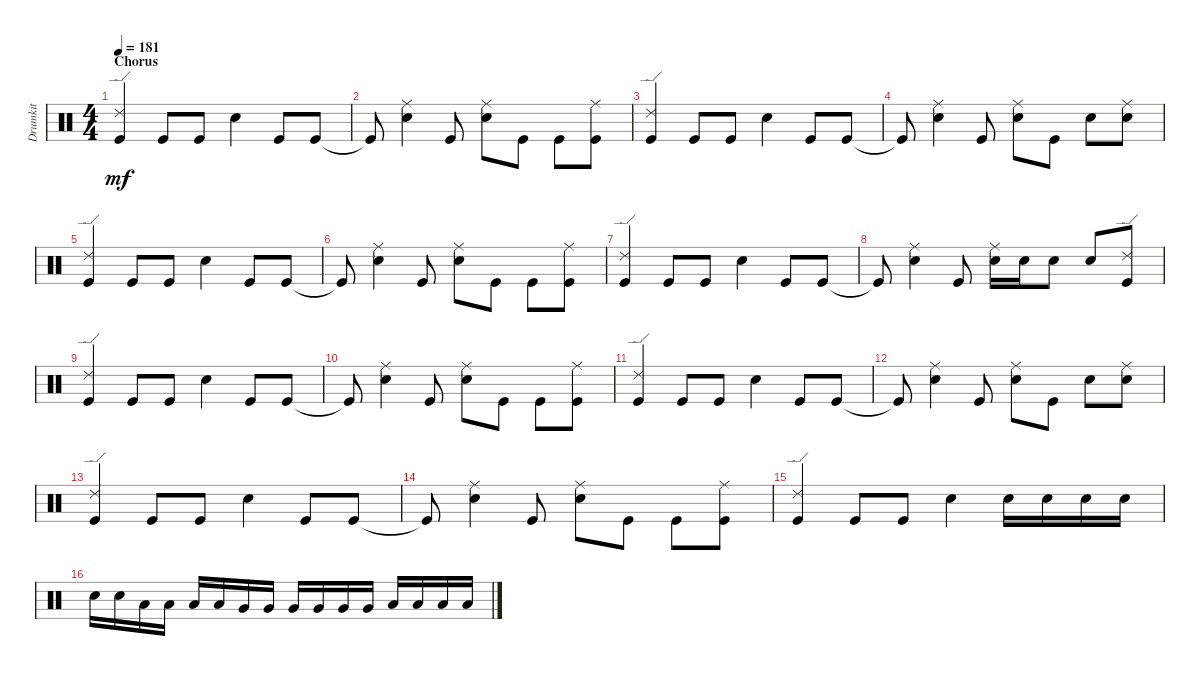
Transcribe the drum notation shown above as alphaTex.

\track ("Drumkit" "Drumkit") {instrument percussion}
\staff {score}
\articulation defaults
\ts (4 4)
\section ("" "Chorus")
\tempo 181
\clef neutral
\ks c
("Kick (hit)" "Ride (edge) 2").4{dy mf} "Kick (hit)".8 "Kick (hit)".8 "Snare (hit) 2".4 "Kick (hit)".8 "Kick (hit)".8 |
"Kick (hit)"{t}.8 ("Snare (hit) 2" "Ride (middle)").4 "Kick (hit)".8 ("Snare (hit) 2" "Ride (middle)").8 "Kick (hit)".8 "Kick (hit)".8 ("Ride (middle)" "Kick (hit)").8 |
("Kick (hit)" "Ride (edge) 2").4 "Kick (hit)".8 "Kick (hit)".8 "Snare (hit) 2".4 "Kick (hit)".8 "Kick (hit)".8 |
"Kick (hit)"{t}.8 ("Snare (hit) 2" "Ride (middle)").4 "Kick (hit)".8 ("Snare (hit) 2" "Ride (middle)").8 "Kick (hit)".8 "Snare (hit) 2".8 ("Snare (hit) 2" "Ride (middle)").8 |
("Kick (hit)" "Ride (edge) 2").4 "Kick (hit)".8 "Kick (hit)".8 "Snare (hit) 2".4 "Kick (hit)".8 "Kick (hit)".8 |
"Kick (hit)"{t}.8 ("Snare (hit) 2" "Ride (middle)").4 "Kick (hit)".8 ("Snare (hit) 2" "Ride (middle)").8 "Kick (hit)".8 "Kick (hit)".8 ("Ride (middle)" "Kick (hit)").8 |
("Kick (hit)" "Ride (edge) 2").4 "Kick (hit)".8 "Kick (hit)".8 "Snare (hit) 2".4 "Kick (hit)".8 "Kick (hit)".8 |
"Kick (hit)"{t}.8 ("Snare (hit) 2" "Ride (middle)").4 "Kick (hit)".8 ("Snare (hit) 2" "Ride (middle)").16 "Snare (hit) 2".16 "Snare (hit) 2".8 "Snare (hit) 2".8 ("Kick (hit)" "Ride (edge) 2").8 |
("Kick (hit)" "Ride (edge) 2").4 "Kick (hit)".8 "Kick (hit)".8 "Snare (hit) 2".4 "Kick (hit)".8 "Kick (hit)".8 |
"Kick (hit)"{t}.8 ("Snare (hit) 2" "Ride (middle)").4 "Kick (hit)".8 ("Snare (hit) 2" "Ride (middle)").8 "Kick (hit)".8 "Kick (hit)".8 ("Ride (middle)" "Kick (hit)").8 |
("Kick (hit)" "Ride (edge) 2").4 "Kick (hit)".8 "Kick (hit)".8 "Snare (hit) 2".4 "Kick (hit)".8 "Kick (hit)".8 |
"Kick (hit)"{t}.8 ("Snare (hit) 2" "Ride (middle)").4 "Kick (hit)".8 ("Snare (hit) 2" "Ride (middle)").8 "Kick (hit)".8 "Snare (hit) 2".8 ("Snare (hit) 2" "Ride (middle)").8 |
("Kick (hit)" "Ride (edge) 2").4 "Kick (hit)".8 "Kick (hit)".8 "Snare (hit) 2".4 "Kick (hit)".8 "Kick (hit)".8 |
"Kick (hit)"{t}.8 ("Snare (hit) 2" "Ride (middle)").4 "Kick (hit)".8 ("Snare (hit) 2" "Ride (middle)").8 "Kick (hit)".8 "Kick (hit)".8 ("Ride (middle)" "Kick (hit)").8 |
("Kick (hit)" "Ride (edge) 2").4 "Kick (hit)".8 "Kick (hit)".8 "Snare (hit) 2".4 "Snare (hit) 2".16 "Snare (hit) 2".16 "Snare (hit) 2".16 "Snare (hit) 2".16 |
"Snare (hit) 2".16 "Snare (hit) 2".16 "Low Tom (hit)".16 "Low Tom (hit)".16 "Low Tom (hit)".16 "Low Tom (hit)".16 "Very Low Tom (hit)".16 "Very Low Tom (hit)".16 "Very Low Tom (hit)".16 "Very Low Tom (hit)".16 "Very Low Tom (hit)".16 "Very Low Tom (hit)".16 "Low Floor Tom (hit)".16 "Low Floor Tom (hit)".16 "Low Floor Tom (hit)".16 "Low Floor Tom (hit)".16
